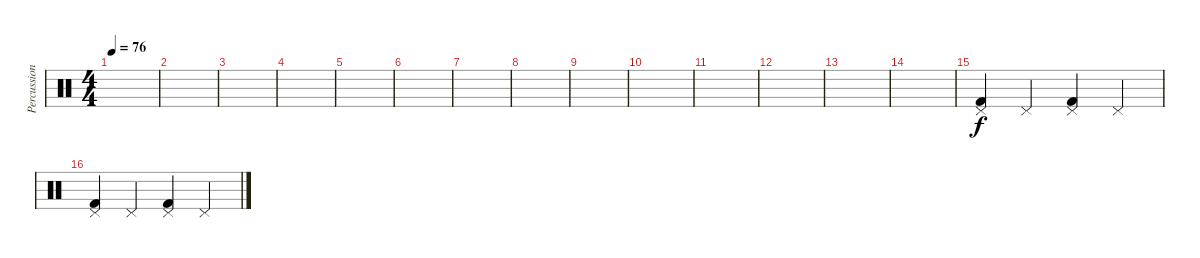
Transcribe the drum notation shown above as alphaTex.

\track ("Percussion" "Percussion") {instrument percussion}
\staff {score}
\articulation defaults
\ts (4 4)
\tempo 76
\clef neutral
\ks c
|
|
|
|
|
|
|
|
|
|
|
|
|
|
("Pedal Hi-Hat (hit)" "Kick (hit) 2").4 "Pedal Hi-Hat (hit)".4 ("Pedal Hi-Hat (hit)" "Kick (hit) 2").4 "Pedal Hi-Hat (hit)".4 |
("Pedal Hi-Hat (hit)" "Kick (hit) 2").4 "Pedal Hi-Hat (hit)".4 ("Pedal Hi-Hat (hit)" "Kick (hit) 2").4 "Pedal Hi-Hat (hit)".4
